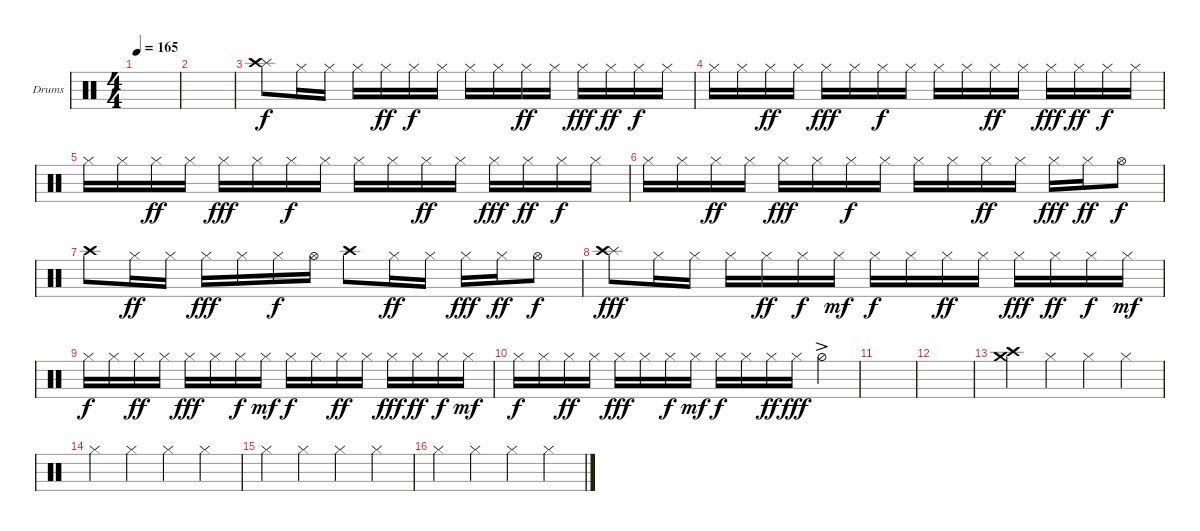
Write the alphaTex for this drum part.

\defaultSystemsLayout 4
\bracketExtendMode groupsimilarinstruments
\firstSystemTrackNameOrientation horizontal
\otherSystemsTrackNameOrientation horizontal
\track ("Helders" "Drums") {instrument percussion}
\staff {score}
\articulation defaults
\ts (4 4)
\tempo 165
\clef neutral
\ks c
|
|
("Splash (hit)" "Crash high (hit)").8 "Hi-Hat (closed)".16 "Hi-Hat (closed)".16 "Hi-Hat (closed)".16 "Hi-Hat (closed)".16{dy ff} "Hi-Hat (closed)".16{dy f} "Hi-Hat (closed)".16 "Hi-Hat (closed)".16 "Hi-Hat (closed)".16 "Hi-Hat (closed)".16{dy ff} "Hi-Hat (closed)".16 "Hi-Hat (closed)".16{dy fff} "Hi-Hat (closed)".16{dy ff} "Hi-Hat (closed)".16{dy f} "Hi-Hat (closed)".16 |
"Hi-Hat (closed)".16 "Hi-Hat (closed)".16 "Hi-Hat (closed)".16{dy ff} "Hi-Hat (closed)".16 "Hi-Hat (closed)".16{dy fff} "Hi-Hat (closed)".16 "Hi-Hat (closed)".16{dy f} "Hi-Hat (closed)".16 "Hi-Hat (closed)".16 "Hi-Hat (closed)".16 "Hi-Hat (closed)".16{dy ff} "Hi-Hat (closed)".16 "Hi-Hat (closed)".16{dy fff} "Hi-Hat (closed)".16{dy ff} "Hi-Hat (closed)".16{dy f} "Hi-Hat (closed)".16 |
"Hi-Hat (closed)".16 "Hi-Hat (closed)".16 "Hi-Hat (closed)".16{dy ff} "Hi-Hat (closed)".16 "Hi-Hat (closed)".16{dy fff} "Hi-Hat (closed)".16 "Hi-Hat (closed)".16{dy f} "Hi-Hat (closed)".16 "Hi-Hat (closed)".16 "Hi-Hat (closed)".16 "Hi-Hat (closed)".16{dy ff} "Hi-Hat (closed)".16 "Hi-Hat (closed)".16{dy fff} "Hi-Hat (closed)".16{dy ff} "Hi-Hat (closed)".16{dy f} "Hi-Hat (closed)".16 |
"Hi-Hat (closed)".16 "Hi-Hat (closed)".16 "Hi-Hat (closed)".16{dy ff} "Hi-Hat (closed)".16 "Hi-Hat (closed)".16{dy fff} "Hi-Hat (closed)".16 "Hi-Hat (closed)".16{dy f} "Hi-Hat (closed)".16 "Hi-Hat (closed)".16 "Hi-Hat (closed)".16 "Hi-Hat (closed)".16{dy ff} "Hi-Hat (closed)".16 "Hi-Hat (closed)".16{dy fff} "Hi-Hat (closed)".16{dy ff} "Hi-Hat (open)".8{dy f} |
"Crash high (hit)".8 "Hi-Hat (closed)".16{dy ff} "Hi-Hat (closed)".16 "Hi-Hat (closed)".16{dy fff} "Hi-Hat (closed)".16 "Hi-Hat (closed)".16{dy f} "Hi-Hat (open)".16 "Crash high (hit)".8 "Hi-Hat (closed)".16{dy ff} "Hi-Hat (closed)".16 "Hi-Hat (closed)".16{dy fff} "Hi-Hat (closed)".16{dy ff} "Hi-Hat (open)".8{dy f} |
("Splash (hit)" "Crash high (hit)").8{dy fff} "Hi-Hat (closed)".16 "Hi-Hat (closed)".16 "Hi-Hat (closed)".16 "Hi-Hat (closed)".16{dy ff} "Hi-Hat (closed)".16{dy f} "Hi-Hat (closed)".16{dy mf} "Hi-Hat (closed)".16{dy f} "Hi-Hat (closed)".16 "Hi-Hat (closed)".16{dy ff} "Hi-Hat (closed)".16 "Hi-Hat (closed)".16{dy fff} "Hi-Hat (closed)".16{dy ff} "Hi-Hat (closed)".16{dy f} "Hi-Hat (closed)".16{dy mf} |
"Hi-Hat (closed)".16{dy f} "Hi-Hat (closed)".16 "Hi-Hat (closed)".16{dy ff} "Hi-Hat (closed)".16 "Hi-Hat (closed)".16{dy fff} "Hi-Hat (closed)".16 "Hi-Hat (closed)".16{dy f} "Hi-Hat (closed)".16{dy mf} "Hi-Hat (closed)".16{dy f} "Hi-Hat (closed)".16 "Hi-Hat (closed)".16{dy ff} "Hi-Hat (closed)".16 "Hi-Hat (closed)".16{dy fff} "Hi-Hat (closed)".16{dy ff} "Hi-Hat (closed)".16{dy f} "Hi-Hat (closed)".16{dy mf} |
"Hi-Hat (closed)".16{dy f} "Hi-Hat (closed)".16 "Hi-Hat (closed)".16{dy ff} "Hi-Hat (closed)".16 "Hi-Hat (closed)".16{dy fff} "Hi-Hat (closed)".16 "Hi-Hat (closed)".16{dy f} "Hi-Hat (closed)".16{dy mf} "Hi-Hat (closed)".16{dy f} "Hi-Hat (closed)".16 "Hi-Hat (closed)".16{dy ff} "Hi-Hat (closed)".16{dy fff} "Hi-Hat (half)"{ac}.4 |
|
|
("Crash high (hit)" "Crash medium (hit)").4 "Hi-Hat (closed)".4 "Hi-Hat (closed)".4 "Hi-Hat (closed)".4 |
"Hi-Hat (closed)".4 "Hi-Hat (closed)".4 "Hi-Hat (closed)".4 "Hi-Hat (closed)".4 |
"Hi-Hat (closed)".4 "Hi-Hat (closed)".4 "Hi-Hat (closed)".4 "Hi-Hat (closed)".4 |
"Hi-Hat (closed)".4 "Hi-Hat (closed)".4 "Hi-Hat (closed)".4 "Hi-Hat (closed)".4
